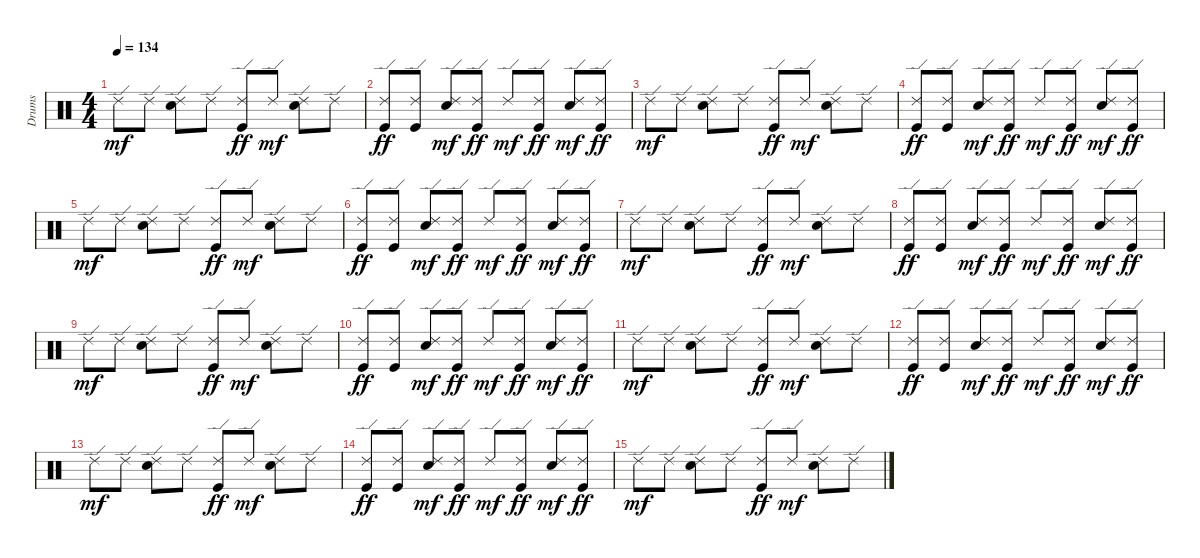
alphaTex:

\track ("Drums" "Drums") {instrument percussion}
\staff {score}
\articulation defaults
\ts (4 4)
\tempo 134
\clef neutral
\ks c "Ride (edge) 2".8{dy mf} "Ride (edge) 2".8
("Ride (edge) 2" "Snare (hit) 2").8 "Ride (edge) 2".8 ("Ride (edge) 2" "Kick (hit)").8{dy ff} "Ride (edge) 2".8{dy mf} ("Ride (edge) 2" "Snare (hit) 2").8 "Ride (edge) 2".8 |
("Ride (edge) 2" "Kick (hit)").8{dy ff} ("Ride (edge) 2" "Kick (hit)").8 ("Ride (edge) 2" "Snare (hit) 2").8{dy mf} ("Ride (edge) 2" "Kick (hit)").8{dy ff} "Ride (edge) 2".8{dy mf} ("Ride (edge) 2" "Kick (hit)").8{dy ff} ("Ride (edge) 2" "Snare (hit) 2").8{dy mf} ("Ride (edge) 2" "Kick (hit)").8{dy ff} |
"Ride (edge) 2".8{dy mf} "Ride (edge) 2".8 ("Ride (edge) 2" "Snare (hit) 2").8 "Ride (edge) 2".8 ("Ride (edge) 2" "Kick (hit)").8{dy ff} "Ride (edge) 2".8{dy mf} ("Ride (edge) 2" "Snare (hit) 2").8 "Ride (edge) 2".8 |
("Ride (edge) 2" "Kick (hit)").8{dy ff} ("Ride (edge) 2" "Kick (hit)").8 ("Ride (edge) 2" "Snare (hit) 2").8{dy mf} ("Ride (edge) 2" "Kick (hit)").8{dy ff} "Ride (edge) 2".8{dy mf} ("Ride (edge) 2" "Kick (hit)").8{dy ff} ("Ride (edge) 2" "Snare (hit) 2").8{dy mf} ("Ride (edge) 2" "Kick (hit)").8{dy ff} |
"Ride (edge) 2".8{dy mf} "Ride (edge) 2".8 ("Ride (edge) 2" "Snare (hit) 2").8 "Ride (edge) 2".8 ("Ride (edge) 2" "Kick (hit)").8{dy ff} "Ride (edge) 2".8{dy mf} ("Ride (edge) 2" "Snare (hit) 2").8 "Ride (edge) 2".8 |
("Ride (edge) 2" "Kick (hit)").8{dy ff} ("Ride (edge) 2" "Kick (hit)").8 ("Ride (edge) 2" "Snare (hit) 2").8{dy mf} ("Ride (edge) 2" "Kick (hit)").8{dy ff} "Ride (edge) 2".8{dy mf} ("Ride (edge) 2" "Kick (hit)").8{dy ff} ("Ride (edge) 2" "Snare (hit) 2").8{dy mf} ("Ride (edge) 2" "Kick (hit)").8{dy ff} |
"Ride (edge) 2".8{dy mf} "Ride (edge) 2".8 ("Ride (edge) 2" "Snare (hit) 2").8 "Ride (edge) 2".8 ("Ride (edge) 2" "Kick (hit)").8{dy ff} "Ride (edge) 2".8{dy mf} ("Ride (edge) 2" "Snare (hit) 2").8 "Ride (edge) 2".8 |
("Ride (edge) 2" "Kick (hit)").8{dy ff} ("Ride (edge) 2" "Kick (hit)").8 ("Ride (edge) 2" "Snare (hit) 2").8{dy mf} ("Ride (edge) 2" "Kick (hit)").8{dy ff} "Ride (edge) 2".8{dy mf} ("Ride (edge) 2" "Kick (hit)").8{dy ff} ("Ride (edge) 2" "Snare (hit) 2").8{dy mf} ("Ride (edge) 2" "Kick (hit)").8{dy ff} |
"Ride (edge) 2".8{dy mf} "Ride (edge) 2".8 ("Ride (edge) 2" "Snare (hit) 2").8 "Ride (edge) 2".8 ("Ride (edge) 2" "Kick (hit)").8{dy ff} "Ride (edge) 2".8{dy mf} ("Ride (edge) 2" "Snare (hit) 2").8 "Ride (edge) 2".8 |
("Ride (edge) 2" "Kick (hit)").8{dy ff} ("Ride (edge) 2" "Kick (hit)").8 ("Ride (edge) 2" "Snare (hit) 2").8{dy mf} ("Ride (edge) 2" "Kick (hit)").8{dy ff} "Ride (edge) 2".8{dy mf} ("Ride (edge) 2" "Kick (hit)").8{dy ff} ("Ride (edge) 2" "Snare (hit) 2").8{dy mf} ("Ride (edge) 2" "Kick (hit)").8{dy ff} |
"Ride (edge) 2".8{dy mf} "Ride (edge) 2".8 ("Ride (edge) 2" "Snare (hit) 2").8 "Ride (edge) 2".8 ("Ride (edge) 2" "Kick (hit)").8{dy ff} "Ride (edge) 2".8{dy mf} ("Ride (edge) 2" "Snare (hit) 2").8 "Ride (edge) 2".8 |
("Ride (edge) 2" "Kick (hit)").8{dy ff} ("Ride (edge) 2" "Kick (hit)").8 ("Ride (edge) 2" "Snare (hit) 2").8{dy mf} ("Ride (edge) 2" "Kick (hit)").8{dy ff} "Ride (edge) 2".8{dy mf} ("Ride (edge) 2" "Kick (hit)").8{dy ff} ("Ride (edge) 2" "Snare (hit) 2").8{dy mf} ("Ride (edge) 2" "Kick (hit)").8{dy ff} |
"Ride (edge) 2".8{dy mf} "Ride (edge) 2".8 ("Ride (edge) 2" "Snare (hit) 2").8 "Ride (edge) 2".8 ("Ride (edge) 2" "Kick (hit)").8{dy ff} "Ride (edge) 2".8{dy mf} ("Ride (edge) 2" "Snare (hit) 2").8 "Ride (edge) 2".8 |
("Ride (edge) 2" "Kick (hit)").8{dy ff} ("Ride (edge) 2" "Kick (hit)").8 ("Ride (edge) 2" "Snare (hit) 2").8{dy mf} ("Ride (edge) 2" "Kick (hit)").8{dy ff} "Ride (edge) 2".8{dy mf} ("Ride (edge) 2" "Kick (hit)").8{dy ff} ("Ride (edge) 2" "Snare (hit) 2").8{dy mf} ("Ride (edge) 2" "Kick (hit)").8{dy ff} |
"Ride (edge) 2".8{dy mf} "Ride (edge) 2".8 ("Ride (edge) 2" "Snare (hit) 2").8 "Ride (edge) 2".8 ("Ride (edge) 2" "Kick (hit)").8{dy ff} "Ride (edge) 2".8{dy mf} ("Ride (edge) 2" "Snare (hit) 2").8 "Ride (edge) 2".8
